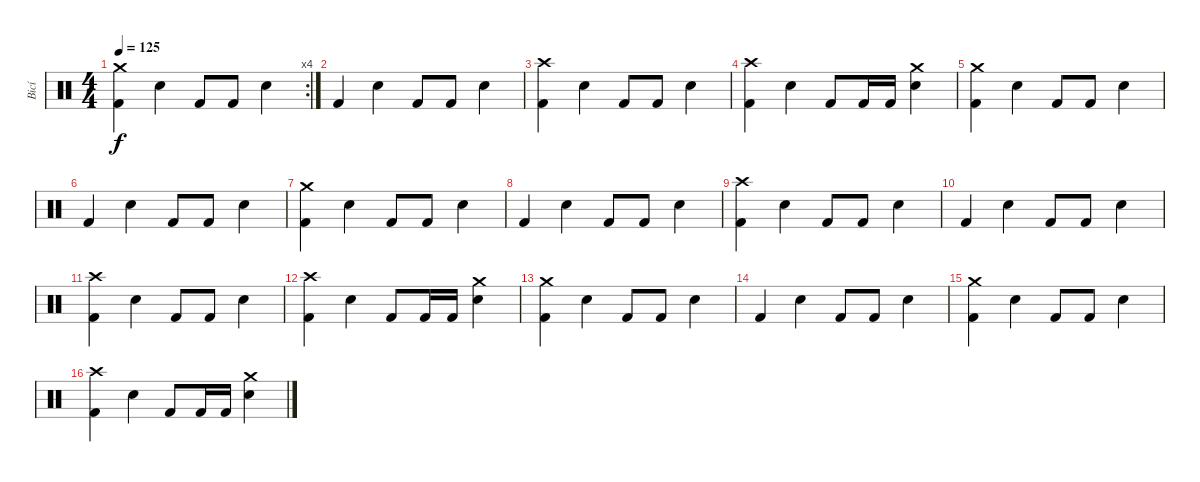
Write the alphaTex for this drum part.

\track ("Bicí" "Bicí") {instrument percussion}
\staff {score}
\articulation defaults
\rc 4
\ts (4 4)
\tempo 125
\clef neutral
\ks c
("Crash medium (hit)" "Kick (hit) 2").4{dy f} "Electric Snare (hit)".4 "Kick (hit) 2".8 "Kick (hit) 2".8 "Electric Snare (hit)".4 |
"Kick (hit) 2".4 "Electric Snare (hit)".4 "Kick (hit) 2".8 "Kick (hit) 2".8 "Electric Snare (hit)".4 |
("Crash high (hit)" "Kick (hit) 2").4 "Electric Snare (hit)".4 "Kick (hit) 2".8 "Kick (hit) 2".8 "Electric Snare (hit)".4 |
("Crash high (hit)" "Kick (hit) 2").4 "Electric Snare (hit)".4 "Kick (hit) 2".8 "Kick (hit) 2".16 "Kick (hit) 2".16 ("Crash medium (hit)" "Electric Snare (hit)").4 |
("Crash medium (hit)" "Kick (hit) 2").4 "Electric Snare (hit)".4 "Kick (hit) 2".8 "Kick (hit) 2".8 "Electric Snare (hit)".4 |
"Kick (hit) 2".4 "Electric Snare (hit)".4 "Kick (hit) 2".8 "Kick (hit) 2".8 "Electric Snare (hit)".4 |
("Crash medium (hit)" "Kick (hit) 2").4 "Electric Snare (hit)".4 "Kick (hit) 2".8 "Kick (hit) 2".8 "Electric Snare (hit)".4 |
"Kick (hit) 2".4 "Electric Snare (hit)".4 "Kick (hit) 2".8 "Kick (hit) 2".8 "Electric Snare (hit)".4 |
("Crash high (hit)" "Kick (hit) 2").4 "Electric Snare (hit)".4 "Kick (hit) 2".8 "Kick (hit) 2".8 "Electric Snare (hit)".4 |
"Kick (hit) 2".4 "Electric Snare (hit)".4 "Kick (hit) 2".8 "Kick (hit) 2".8 "Electric Snare (hit)".4 |
("Crash high (hit)" "Kick (hit) 2").4 "Electric Snare (hit)".4 "Kick (hit) 2".8 "Kick (hit) 2".8 "Electric Snare (hit)".4 |
("Crash high (hit)" "Kick (hit) 2").4 "Electric Snare (hit)".4 "Kick (hit) 2".8 "Kick (hit) 2".16 "Kick (hit) 2".16 ("Crash medium (hit)" "Electric Snare (hit)").4 |
("Crash medium (hit)" "Kick (hit) 2").4 "Electric Snare (hit)".4 "Kick (hit) 2".8 "Kick (hit) 2".8 "Electric Snare (hit)".4 |
"Kick (hit) 2".4 "Electric Snare (hit)".4 "Kick (hit) 2".8 "Kick (hit) 2".8 "Electric Snare (hit)".4 |
("Crash medium (hit)" "Kick (hit) 2").4 "Electric Snare (hit)".4 "Kick (hit) 2".8 "Kick (hit) 2".8 "Electric Snare (hit)".4 |
("Crash high (hit)" "Kick (hit) 2").4 "Electric Snare (hit)".4 "Kick (hit) 2".8 "Kick (hit) 2".16 "Kick (hit) 2".16 ("Crash medium (hit)" "Electric Snare (hit)").4
